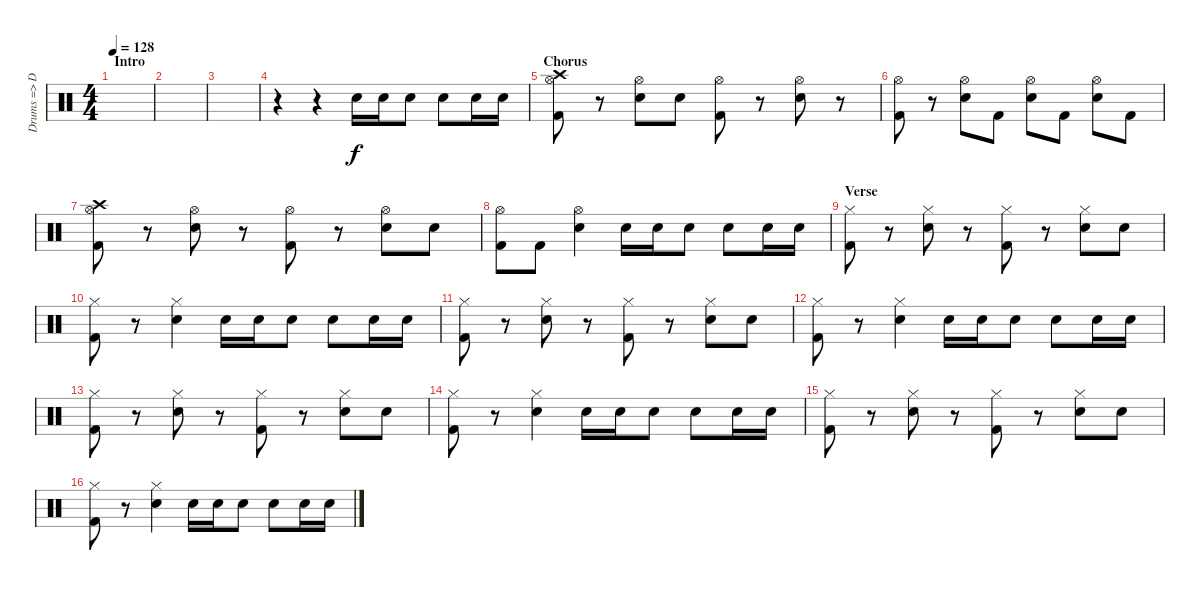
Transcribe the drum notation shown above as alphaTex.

\track ("Drums => Dave" "Drums => D") {instrument percussion}
\staff {score}
\articulation defaults
\ts (4 4)
\section ("" "Intro")
\tempo 128
\clef neutral
\ks c
|
|
|
r.4 r.4 "Snare (hit) 2".16 "Snare (hit) 2".16 "Snare (hit) 2".8 "Snare (hit) 2".8 "Snare (hit) 2".16 "Snare (hit) 2".16 |
\section ("" "Chorus")
("Hi-Hat (open)" "Crash high (hit)" "Kick (hit) 2").8 r.8 ("Hi-Hat (open)" "Snare (hit) 2").8 "Snare (hit) 2".8 ("Hi-Hat (open)" "Kick (hit) 2").8 r.8 ("Hi-Hat (open)" "Snare (hit) 2").8 r.8 |
("Hi-Hat (open)" "Kick (hit) 2").8 r.8 ("Hi-Hat (open)" "Snare (hit) 2").8 "Kick (hit) 2".8 ("Hi-Hat (open)" "Snare (hit) 2").8 "Kick (hit) 2".8 ("Hi-Hat (open)" "Snare (hit) 2").8 "Kick (hit) 2".8 |
("Hi-Hat (open)" "Crash high (hit)" "Kick (hit) 2").8 r.8 ("Hi-Hat (open)" "Snare (hit) 2").8 r.8 ("Hi-Hat (open)" "Kick (hit) 2").8 r.8 ("Hi-Hat (open)" "Snare (hit) 2").8 "Snare (hit) 2".8 |
("Hi-Hat (open)" "Kick (hit) 2").8 "Kick (hit) 2".8 ("Hi-Hat (open)" "Snare (hit) 2").4 "Snare (hit) 2".16 "Snare (hit) 2".16 "Snare (hit) 2".8 "Snare (hit) 2".8 "Snare (hit) 2".16 "Snare (hit) 2".16 |
\section ("" "Verse")
("Hi-Hat (closed)" "Kick (hit) 2").8 r.8 ("Hi-Hat (closed)" "Snare (hit) 2").8 r.8 ("Hi-Hat (closed)" "Kick (hit) 2").8 r.8 ("Hi-Hat (closed)" "Snare (hit) 2").8 "Snare (hit) 2".8 |
("Hi-Hat (closed)" "Kick (hit) 2").8 r.8 ("Hi-Hat (closed)" "Snare (hit) 2").4 "Snare (hit) 2".16 "Snare (hit) 2".16 "Snare (hit) 2".8 "Snare (hit) 2".8 "Snare (hit) 2".16 "Snare (hit) 2".16 |
("Hi-Hat (closed)" "Kick (hit) 2").8 r.8 ("Hi-Hat (closed)" "Snare (hit) 2").8 r.8 ("Hi-Hat (closed)" "Kick (hit) 2").8 r.8 ("Hi-Hat (closed)" "Snare (hit) 2").8 "Snare (hit) 2".8 |
("Hi-Hat (closed)" "Kick (hit) 2").8 r.8 ("Hi-Hat (closed)" "Snare (hit) 2").4 "Snare (hit) 2".16 "Snare (hit) 2".16 "Snare (hit) 2".8 "Snare (hit) 2".8 "Snare (hit) 2".16 "Snare (hit) 2".16 |
("Hi-Hat (closed)" "Kick (hit) 2").8 r.8 ("Hi-Hat (closed)" "Snare (hit) 2").8 r.8 ("Hi-Hat (closed)" "Kick (hit) 2").8 r.8 ("Hi-Hat (closed)" "Snare (hit) 2").8 "Snare (hit) 2".8 |
("Hi-Hat (closed)" "Kick (hit) 2").8 r.8 ("Hi-Hat (closed)" "Snare (hit) 2").4 "Snare (hit) 2".16 "Snare (hit) 2".16 "Snare (hit) 2".8 "Snare (hit) 2".8 "Snare (hit) 2".16 "Snare (hit) 2".16 |
("Hi-Hat (closed)" "Kick (hit) 2").8 r.8 ("Hi-Hat (closed)" "Snare (hit) 2").8 r.8 ("Hi-Hat (closed)" "Kick (hit) 2").8 r.8 ("Hi-Hat (closed)" "Snare (hit) 2").8 "Snare (hit) 2".8 |
("Hi-Hat (closed)" "Kick (hit) 2").8 r.8 ("Hi-Hat (closed)" "Snare (hit) 2").4 "Snare (hit) 2".16 "Snare (hit) 2".16 "Snare (hit) 2".8 "Snare (hit) 2".8 "Snare (hit) 2".16 "Snare (hit) 2".16
